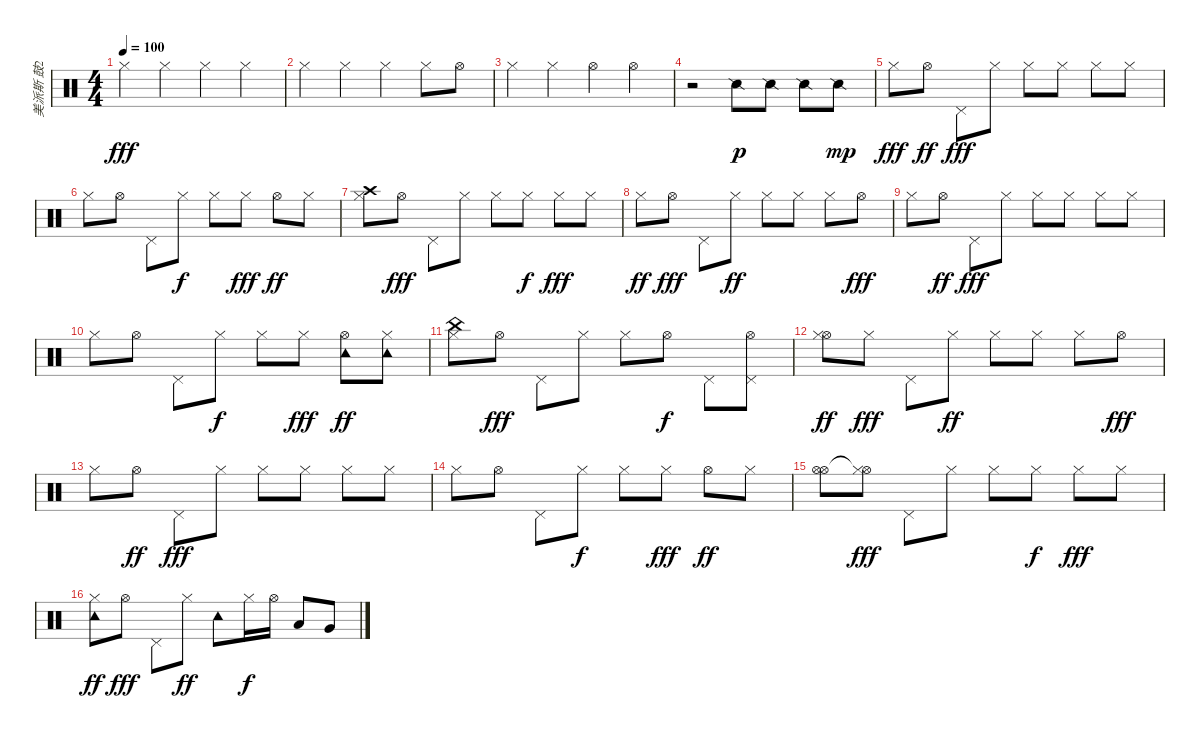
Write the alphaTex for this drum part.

\track ("美派斯 鼓2" "美派斯 鼓2") {instrument percussion}
\staff {score}
\articulation defaults
\ts (4 4)
\tempo 100
\clef neutral
\ks c "Hi-Hat (closed)".4{dy fff} "Hi-Hat (closed)".4 "Hi-Hat (closed)".4 "Hi-Hat (closed)".4
|
"Hi-Hat (closed)".4 "Hi-Hat (closed)".4 "Hi-Hat (closed)".4 "Hi-Hat (closed)".8 "Hi-Hat (open)".8 |
"Hi-Hat (closed)".4 "Hi-Hat (closed)".4 "Hi-Hat (open)".4 "Hi-Hat (open)".4 |
r.2 "Snare (side stick) 2".8{dy p} "Snare (side stick) 2".8 "Snare (side stick) 2".8 "Snare (side stick) 2".8{dy mp} |
"Hi-Hat (closed)".8{dy fff} "Hi-Hat (open)".8{dy ff} "Pedal Hi-Hat (hit)".8{dy fff} "Hi-Hat (closed)".8 "Hi-Hat (closed)".8 "Hi-Hat (closed)".8 "Hi-Hat (closed)".8 "Hi-Hat (closed)".8 |
"Hi-Hat (closed)".8 "Hi-Hat (open)".8 "Pedal Hi-Hat (hit)".8 "Hi-Hat (closed)".8{dy f} "Hi-Hat (closed)".8 "Hi-Hat (closed)".8{dy fff} "Hi-Hat (open)".8{dy ff} "Hi-Hat (closed)".8 |
("Crash high (hit)" "Hi-Hat (closed)").8 "Hi-Hat (open)".8{dy fff} "Pedal Hi-Hat (hit)".8 "Hi-Hat (closed)".8 "Hi-Hat (closed)".8 "Hi-Hat (closed)".8{dy f} "Hi-Hat (closed)".8{dy fff} "Hi-Hat (closed)".8 |
"Hi-Hat (closed)".8{dy ff} "Hi-Hat (open)".8{dy fff} "Pedal Hi-Hat (hit)".8 "Hi-Hat (closed)".8{dy ff} "Hi-Hat (closed)".8 "Hi-Hat (closed)".8 "Hi-Hat (closed)".8 "Hi-Hat (open)".8{dy fff} |
"Hi-Hat (closed)".8 "Hi-Hat (open)".8{dy ff} "Pedal Hi-Hat (hit)".8{dy fff} "Hi-Hat (closed)".8 "Hi-Hat (closed)".8 "Hi-Hat (closed)".8 "Hi-Hat (closed)".8 "Hi-Hat (closed)".8 |
"Hi-Hat (closed)".8 "Hi-Hat (open)".8 "Pedal Hi-Hat (hit)".8 "Hi-Hat (closed)".8{dy f} "Hi-Hat (closed)".8 "Hi-Hat (closed)".8{dy fff} ("Tambourine (hit)" "Hi-Hat (open)").8{dy ff} ("Tambourine (hit)" "Hi-Hat (closed)").8 |
("China (hit)" "Hi-Hat (closed)").8 "Hi-Hat (open)".8{dy fff} "Pedal Hi-Hat (hit)".8 "Hi-Hat (closed)".8 "Hi-Hat (closed)".8 "Hi-Hat (open)".8{dy f} "Pedal Hi-Hat (hit)".8 ("Hi-Hat (open)" "Pedal Hi-Hat (hit)").8 |
("Hi-Hat (open)" "Hi-Hat (closed)").8{dy ff} "Hi-Hat (closed)".8{dy fff} "Pedal Hi-Hat (hit)".8 "Hi-Hat (closed)".8{dy ff} "Hi-Hat (closed)".8 "Hi-Hat (closed)".8 "Hi-Hat (closed)".8 "Hi-Hat (open)".8{dy fff} |
"Hi-Hat (closed)".8 "Hi-Hat (open)".8{dy ff} "Pedal Hi-Hat (hit)".8{dy fff} "Hi-Hat (closed)".8 "Hi-Hat (closed)".8 "Hi-Hat (closed)".8 "Hi-Hat (closed)".8 "Hi-Hat (closed)".8 |
"Hi-Hat (closed)".8 "Hi-Hat (open)".8 "Pedal Hi-Hat (hit)".8 "Hi-Hat (closed)".8{dy f} "Hi-Hat (closed)".8 "Hi-Hat (closed)".8{dy fff} "Hi-Hat (open)".8{dy ff} "Hi-Hat (closed)".8 |
("Hi-Hat (open)" "Hi-Hat (open)").8 ("Hi-Hat (open)"{t} "Hi-Hat (closed)").8{dy fff} "Pedal Hi-Hat (hit)".8 "Hi-Hat (closed)".8 "Hi-Hat (closed)".8 "Hi-Hat (closed)".8{dy f} "Hi-Hat (closed)".8{dy fff} "Hi-Hat (closed)".8 |
("Tambourine (hit)" "Hi-Hat (closed)").8{dy ff} "Hi-Hat (open)".8{dy fff} "Pedal Hi-Hat (hit)".8 "Hi-Hat (closed)".8{dy ff} "Tambourine (hit)".8 "Hi-Hat (closed)".16{dy f} "Hi-Hat (open)".16 "Low Tom (hit)".8 "Very Low Tom (hit)".8
